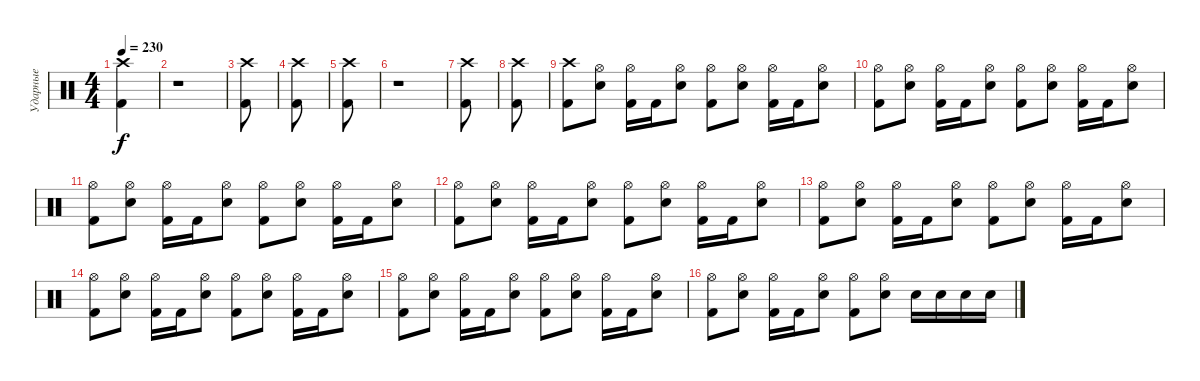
\track ("Ударные" "Ударные") {instrument percussion}
\staff {score}
\articulation defaults
\ts (4 4)
\tempo 230
\clef neutral
\ks c
("Crash high (hit)" "Kick (hit) 2").4{dy f} |
r.1 |
("Crash high (hit)" "Kick (hit) 2").8 |
("Crash high (hit)" "Kick (hit) 2").8 |
("Crash high (hit)" "Kick (hit) 2").8 |
r.1 |
("Crash high (hit)" "Kick (hit) 2").8 |
("Crash high (hit)" "Kick (hit) 2").8 |
("Crash high (hit)" "Kick (hit) 2").8 ("Hi-Hat (open)" "Electric Snare (hit)").8 ("Hi-Hat (open)" "Kick (hit) 2").16 "Kick (hit) 2".16 ("Hi-Hat (open)" "Electric Snare (hit)").8 ("Hi-Hat (open)" "Kick (hit) 2").8 ("Hi-Hat (open)" "Electric Snare (hit)").8 ("Hi-Hat (open)" "Kick (hit) 2").16 "Kick (hit) 2".16 ("Hi-Hat (open)" "Electric Snare (hit)").8 |
("Hi-Hat (open)" "Kick (hit) 2").8 ("Hi-Hat (open)" "Electric Snare (hit)").8 ("Hi-Hat (open)" "Kick (hit) 2").16 "Kick (hit) 2".16 ("Hi-Hat (open)" "Electric Snare (hit)").8 ("Hi-Hat (open)" "Kick (hit) 2").8 ("Hi-Hat (open)" "Electric Snare (hit)").8 ("Hi-Hat (open)" "Kick (hit) 2").16 "Kick (hit) 2".16 ("Hi-Hat (open)" "Electric Snare (hit)").8 |
("Hi-Hat (open)" "Kick (hit) 2").8 ("Hi-Hat (open)" "Electric Snare (hit)").8 ("Hi-Hat (open)" "Kick (hit) 2").16 "Kick (hit) 2".16 ("Hi-Hat (open)" "Electric Snare (hit)").8 ("Hi-Hat (open)" "Kick (hit) 2").8 ("Hi-Hat (open)" "Electric Snare (hit)").8 ("Hi-Hat (open)" "Kick (hit) 2").16 "Kick (hit) 2".16 ("Hi-Hat (open)" "Electric Snare (hit)").8 |
("Hi-Hat (open)" "Kick (hit) 2").8 ("Hi-Hat (open)" "Electric Snare (hit)").8 ("Hi-Hat (open)" "Kick (hit) 2").16 "Kick (hit) 2".16 ("Hi-Hat (open)" "Electric Snare (hit)").8 ("Hi-Hat (open)" "Kick (hit) 2").8 ("Hi-Hat (open)" "Electric Snare (hit)").8 ("Hi-Hat (open)" "Kick (hit) 2").16 "Kick (hit) 2".16 ("Hi-Hat (open)" "Electric Snare (hit)").8 |
("Hi-Hat (open)" "Kick (hit) 2").8 ("Hi-Hat (open)" "Electric Snare (hit)").8 ("Hi-Hat (open)" "Kick (hit) 2").16 "Kick (hit) 2".16 ("Hi-Hat (open)" "Electric Snare (hit)").8 ("Hi-Hat (open)" "Kick (hit) 2").8 ("Hi-Hat (open)" "Electric Snare (hit)").8 ("Hi-Hat (open)" "Kick (hit) 2").16 "Kick (hit) 2".16 ("Hi-Hat (open)" "Electric Snare (hit)").8 |
("Hi-Hat (open)" "Kick (hit) 2").8 ("Hi-Hat (open)" "Electric Snare (hit)").8 ("Hi-Hat (open)" "Kick (hit) 2").16 "Kick (hit) 2".16 ("Hi-Hat (open)" "Electric Snare (hit)").8 ("Hi-Hat (open)" "Kick (hit) 2").8 ("Hi-Hat (open)" "Electric Snare (hit)").8 ("Hi-Hat (open)" "Kick (hit) 2").16 "Kick (hit) 2".16 ("Hi-Hat (open)" "Electric Snare (hit)").8 |
("Hi-Hat (open)" "Kick (hit) 2").8 ("Hi-Hat (open)" "Electric Snare (hit)").8 ("Hi-Hat (open)" "Kick (hit) 2").16 "Kick (hit) 2".16 ("Hi-Hat (open)" "Electric Snare (hit)").8 ("Hi-Hat (open)" "Kick (hit) 2").8 ("Hi-Hat (open)" "Electric Snare (hit)").8 ("Hi-Hat (open)" "Kick (hit) 2").16 "Kick (hit) 2".16 ("Hi-Hat (open)" "Electric Snare (hit)").8 |
("Hi-Hat (open)" "Kick (hit) 2").8 ("Hi-Hat (open)" "Electric Snare (hit)").8 ("Hi-Hat (open)" "Kick (hit) 2").16 "Kick (hit) 2".16 ("Hi-Hat (open)" "Electric Snare (hit)").8 ("Hi-Hat (open)" "Kick (hit) 2").8 ("Hi-Hat (open)" "Electric Snare (hit)").8 "Electric Snare (hit)".16 "Electric Snare (hit)".16 "Electric Snare (hit)".16 "Electric Snare (hit)".16
